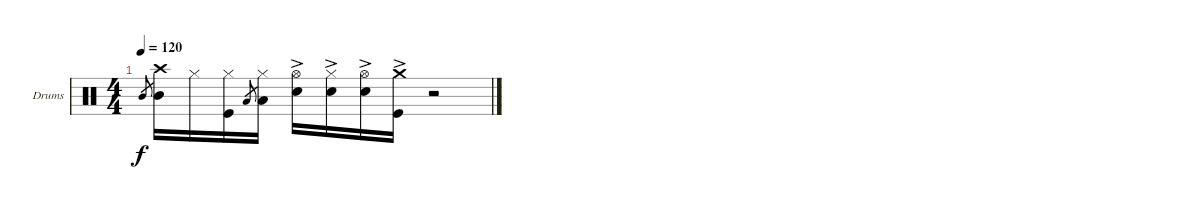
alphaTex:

\defaultSystemsLayout 4
\bracketExtendMode groupsimilarinstruments
\firstSystemTrackNameOrientation horizontal
\otherSystemsTrackNameOrientation horizontal
\track ("Drumkit" "Drums") {instrument percussion}
\staff {score}
\articulation defaults
\ts (4 4)
\tempo 120
\clef neutral
\ks c "Mid Tom (hit)".8{gr dy f}
("Mid Tom (hit)" "Crash high (hit)").16 "Hi-Hat (closed)".16 ("Hi-Hat (closed)" "Kick (hit)").16 "Low Tom (hit)".8{gr} ("Hi-Hat (closed)" "Low Tom (hit)").16 ("Hi-Hat (open)" "Snare (hit) 2"{ac}).16 ("Hi-Hat (closed)" "Snare (hit) 2"{ac}).16 ("Hi-Hat (open)" "Snare (hit) 2"{ac}).16 ("Kick (hit)" "Crash medium (hit)"{ac}).16 r.2
